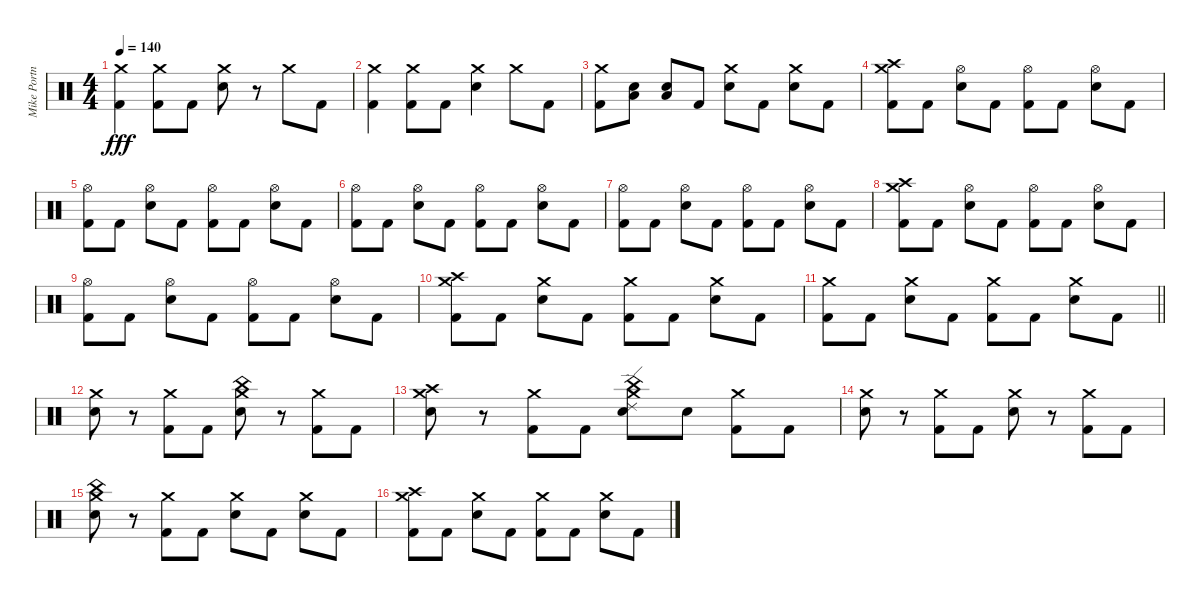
\track ("Mike Portnoy" "Mike Portn") {instrument percussion}
\staff {score}
\articulation defaults
\ts (4 4)
\tempo 140
\clef neutral
\ks c
("Crash medium (hit)" "Kick (hit) 2").4{dy fff} ("Crash medium (hit)" "Kick (hit) 2").8 "Kick (hit) 2".8 ("Crash medium (hit)" "Electric Snare (hit)").8 r.8 "Crash medium (hit)".8 "Kick (hit) 2".8 |
("Crash medium (hit)" "Kick (hit) 2").4 ("Crash medium (hit)" "Kick (hit) 2").8 "Kick (hit) 2".8 ("Crash medium (hit)" "Electric Snare (hit)").4 "Crash medium (hit)".8 "Kick (hit) 2".8 |
("Crash medium (hit)" "Kick (hit) 2").8 ("Low Floor Tom (hit)" "Electric Snare (hit)").8 ("Low Floor Tom (hit)" "Electric Snare (hit)").8 "Kick (hit) 2".8 ("Crash medium (hit)" "Electric Snare (hit)").8 "Kick (hit) 2".8 ("Crash medium (hit)" "Electric Snare (hit)").8 "Kick (hit) 2".8 |
("Crash high (hit)" "Crash medium (hit)" "Kick (hit) 2").8 "Kick (hit) 2".8 ("Hi-Hat (open)" "Electric Snare (hit)").8 "Kick (hit) 2".8 ("Hi-Hat (open)" "Kick (hit) 2").8 "Kick (hit) 2".8 ("Hi-Hat (open)" "Electric Snare (hit)").8 "Kick (hit) 2".8 |
("Hi-Hat (open)" "Kick (hit) 2").8 "Kick (hit) 2".8 ("Hi-Hat (open)" "Electric Snare (hit)").8 "Kick (hit) 2".8 ("Hi-Hat (open)" "Kick (hit) 2").8 "Kick (hit) 2".8 ("Hi-Hat (open)" "Electric Snare (hit)").8 "Kick (hit) 2".8 |
("Hi-Hat (open)" "Kick (hit) 2").8 "Kick (hit) 2".8 ("Hi-Hat (open)" "Electric Snare (hit)").8 "Kick (hit) 2".8 ("Hi-Hat (open)" "Kick (hit) 2").8 "Kick (hit) 2".8 ("Hi-Hat (open)" "Electric Snare (hit)").8 "Kick (hit) 2".8 |
("Hi-Hat (open)" "Kick (hit) 2").8 "Kick (hit) 2".8 ("Hi-Hat (open)" "Electric Snare (hit)").8 "Kick (hit) 2".8 ("Hi-Hat (open)" "Kick (hit) 2").8 "Kick (hit) 2".8 ("Hi-Hat (open)" "Electric Snare (hit)").8 "Kick (hit) 2".8 |
("Crash high (hit)" "Crash medium (hit)" "Kick (hit) 2").8 "Kick (hit) 2".8 ("Hi-Hat (open)" "Electric Snare (hit)").8 "Kick (hit) 2".8 ("Hi-Hat (open)" "Kick (hit) 2").8 "Kick (hit) 2".8 ("Hi-Hat (open)" "Electric Snare (hit)").8 "Kick (hit) 2".8 |
("Hi-Hat (open)" "Kick (hit) 2").8 "Kick (hit) 2".8 ("Hi-Hat (open)" "Electric Snare (hit)").8 "Kick (hit) 2".8 ("Hi-Hat (open)" "Kick (hit) 2").8 "Kick (hit) 2".8 ("Hi-Hat (open)" "Electric Snare (hit)").8 "Kick (hit) 2".8 |
("Crash high (hit)" "Crash medium (hit)" "Kick (hit) 2").8 "Kick (hit) 2".8 ("Crash medium (hit)" "Electric Snare (hit)").8 "Kick (hit) 2".8 ("Crash medium (hit)" "Kick (hit) 2").8 "Kick (hit) 2".8 ("Crash medium (hit)" "Electric Snare (hit)").8 "Kick (hit) 2".8 |
\barLineRight lightlight
("Crash medium (hit)" "Kick (hit) 2").8 "Kick (hit) 2".8 ("Crash medium (hit)" "Electric Snare (hit)").8 "Kick (hit) 2".8 ("Crash medium (hit)" "Kick (hit) 2").8 "Kick (hit) 2".8 ("Crash medium (hit)" "Electric Snare (hit)").8 "Kick (hit) 2".8 |
("Crash medium (hit)" "Electric Snare (hit)").8 r.8 ("Crash medium (hit)" "Kick (hit) 2").8 "Kick (hit) 2".8 ("China (hit)" "Crash medium (hit)" "Electric Snare (hit)").8 r.8 ("Crash medium (hit)" "Kick (hit) 2").8 "Kick (hit) 2".8 |
("Crash high (hit)" "Crash medium (hit)" "Electric Snare (hit)").8 r.8 ("Crash medium (hit)" "Kick (hit) 2").8 "Kick (hit) 2".8 ("China (hit)" "Crash medium (hit)" "Ride (edge) 2" "Electric Snare (hit)").8 "Electric Snare (hit)".8 ("Crash medium (hit)" "Kick (hit) 2").8 "Kick (hit) 2".8 |
("Crash medium (hit)" "Electric Snare (hit)").8 r.8 ("Crash medium (hit)" "Kick (hit) 2").8 "Kick (hit) 2".8 ("Crash medium (hit)" "Electric Snare (hit)").8 r.8 ("Crash medium (hit)" "Kick (hit) 2").8 "Kick (hit) 2".8 |
("China (hit)" "Crash medium (hit)" "Electric Snare (hit)").8 r.8 ("Crash medium (hit)" "Kick (hit) 2").8 "Kick (hit) 2".8 ("Crash medium (hit)" "Electric Snare (hit)").8 "Kick (hit) 2".8 ("Crash medium (hit)" "Electric Snare (hit)").8 "Kick (hit) 2".8 |
("Crash high (hit)" "Crash medium (hit)" "Kick (hit) 2").8 "Kick (hit) 2".8 ("Crash medium (hit)" "Electric Snare (hit)").8 "Kick (hit) 2".8 ("Crash medium (hit)" "Kick (hit) 2").8 "Kick (hit) 2".8 ("Crash medium (hit)" "Electric Snare (hit)").8 "Kick (hit) 2".8
